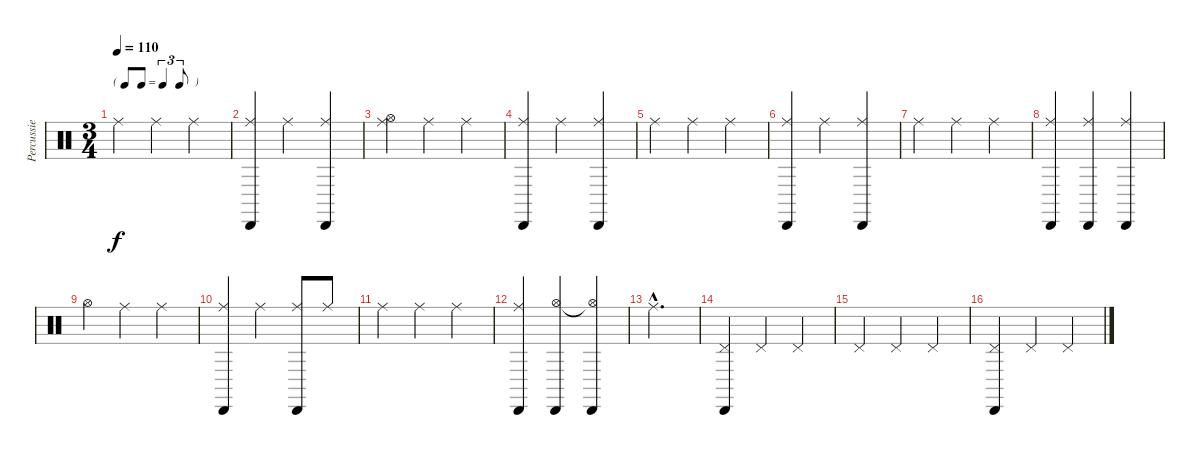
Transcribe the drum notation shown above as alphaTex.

\track ("Percussie" "Percussie") {instrument percussion}
\staff {score}
\articulation defaults
\ts (3 4)
\tf triplet8th
\tempo 110
\clef neutral
\ks c "Ride (middle)".4{dy f} "Ride (middle)".4 "Ride (middle)".4
|
("Cabasa (hit)" "Ride (middle)").4 "Ride (middle)".4 ("Cabasa (hit)" "Ride (middle)").4 |
("Hi-Hat (open)" "Ride (middle)").4 "Ride (middle)".4 "Ride (middle)".4 |
("Cabasa (hit)" "Ride (middle)").4 "Ride (middle)".4 ("Cabasa (hit)" "Ride (middle)").4 |
"Ride (middle)".4 "Ride (middle)".4 "Ride (middle)".4 |
("Cabasa (hit)" "Ride (middle)").4 "Ride (middle)".4 ("Cabasa (hit)" "Ride (middle)").4 |
"Ride (middle)".4 "Ride (middle)".4 "Ride (middle)".4 |
("Cabasa (hit)" "Ride (middle)").4 ("Cabasa (hit)" "Ride (middle)").4 ("Cabasa (hit)" "Ride (middle)").4 |
"Hi-Hat (open)".4 "Ride (middle)".4 "Ride (middle)".4 |
("Cabasa (hit)" "Ride (middle)").4 "Ride (middle)".4 ("Cabasa (hit)" "Ride (middle)").8 "Ride (middle)".8 |
"Ride (middle)".4 "Ride (middle)".4 "Ride (middle)".4 |
("Cabasa (hit)" "Ride (middle)").4 ("Hi-Hat (open)" "Cabasa (hit)").4 ("Hi-Hat (open)"{t} "Cabasa (hit)").4 |
"Ride (middle)"{hac}.2{d} |
("Cabasa (hit)" "Pedal Hi-Hat (hit)").4 "Pedal Hi-Hat (hit)".4 "Pedal Hi-Hat (hit)".4 |
"Pedal Hi-Hat (hit)".4 "Pedal Hi-Hat (hit)".4 "Pedal Hi-Hat (hit)".4 |
("Cabasa (hit)" "Pedal Hi-Hat (hit)").4 "Pedal Hi-Hat (hit)".4 "Pedal Hi-Hat (hit)".4
